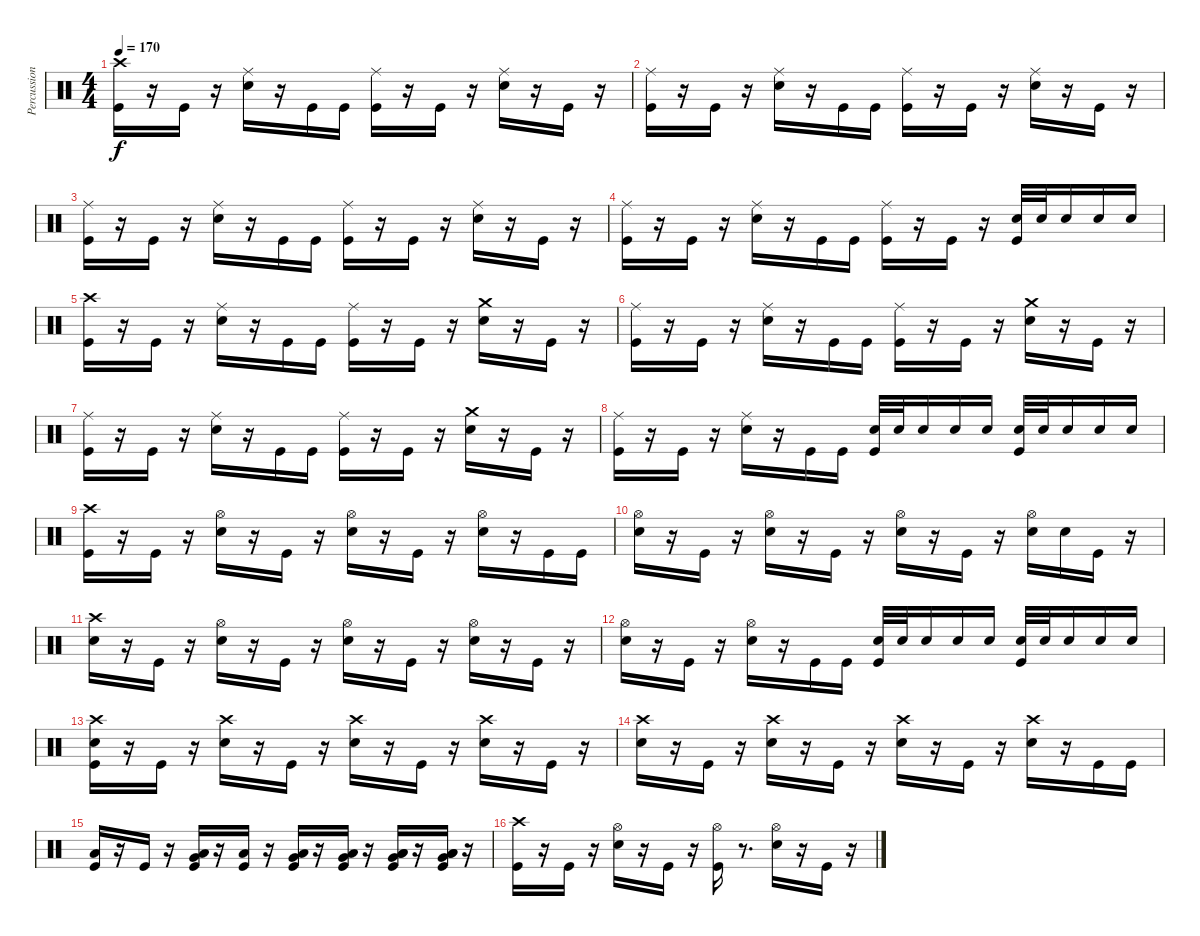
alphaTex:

\track ("Percussion" "Percussion") {instrument percussion}
\staff {score}
\articulation defaults
\ts (4 4)
\tempo 170
\clef neutral
\ks c
("Crash high (hit)" "Kick (hit)").16{dy f} r.16 "Kick (hit)".16 r.16 ("Ride (middle)" "Electric Snare (hit)").16 r.16 "Kick (hit)".16 "Kick (hit)".16 ("Ride (middle)" "Kick (hit)").16 r.16 "Kick (hit)".16 r.16 ("Ride (middle)" "Electric Snare (hit)").16 r.16 "Kick (hit)".16 r.16 |
("Ride (middle)" "Kick (hit)").16 r.16 "Kick (hit)".16 r.16 ("Ride (middle)" "Electric Snare (hit)").16 r.16 "Kick (hit)".16 "Kick (hit)".16 ("Ride (middle)" "Kick (hit)").16 r.16 "Kick (hit)".16 r.16 ("Ride (middle)" "Electric Snare (hit)").16 r.16 "Kick (hit)".16 r.16 |
("Ride (middle)" "Kick (hit)").16 r.16 "Kick (hit)".16 r.16 ("Ride (middle)" "Electric Snare (hit)").16 r.16 "Kick (hit)".16 "Kick (hit)".16 ("Ride (middle)" "Kick (hit)").16 r.16 "Kick (hit)".16 r.16 ("Ride (middle)" "Electric Snare (hit)").16 r.16 "Kick (hit)".16 r.16 |
("Ride (middle)" "Kick (hit)").16 r.16 "Kick (hit)".16 r.16 ("Ride (middle)" "Electric Snare (hit)").16 r.16 "Kick (hit)".16 "Kick (hit)".16 ("Ride (middle)" "Kick (hit)").16 r.16 "Kick (hit)".16 r.16 ("Kick (hit)" "Electric Snare (hit)").32 "Electric Snare (hit)".32 "Electric Snare (hit)".16 "Electric Snare (hit)".16 "Electric Snare (hit)".16 |
("Crash high (hit)" "Kick (hit)").16 r.16 "Kick (hit)".16 r.16 ("Ride (middle)" "Electric Snare (hit)").16 r.16 "Kick (hit)".16 "Kick (hit)".16 ("Ride (middle)" "Kick (hit)").16 r.16 "Kick (hit)".16 r.16 ("Crash medium (hit)" "Electric Snare (hit)").16 r.16 "Kick (hit)".16 r.16 |
("Ride (middle)" "Kick (hit)").16 r.16 "Kick (hit)".16 r.16 ("Ride (middle)" "Electric Snare (hit)").16 r.16 "Kick (hit)".16 "Kick (hit)".16 ("Ride (middle)" "Kick (hit)").16 r.16 "Kick (hit)".16 r.16 ("Crash medium (hit)" "Electric Snare (hit)").16 r.16 "Kick (hit)".16 r.16 |
("Ride (middle)" "Kick (hit)").16 r.16 "Kick (hit)".16 r.16 ("Ride (middle)" "Electric Snare (hit)").16 r.16 "Kick (hit)".16 "Kick (hit)".16 ("Ride (middle)" "Kick (hit)").16 r.16 "Kick (hit)".16 r.16 ("Crash medium (hit)" "Electric Snare (hit)").16 r.16 "Kick (hit)".16 r.16 |
("Ride (middle)" "Kick (hit)").16 r.16 "Kick (hit)".16 r.16 ("Ride (middle)" "Electric Snare (hit)").16 r.16 "Kick (hit)".16 "Kick (hit)".16 ("Electric Snare (hit)" "Kick (hit)").32 "Electric Snare (hit)".32 "Electric Snare (hit)".16 "Electric Snare (hit)".16 "Electric Snare (hit)".16 ("Kick (hit)" "Electric Snare (hit)").32 "Electric Snare (hit)".32 "Electric Snare (hit)".16 "Electric Snare (hit)".16 "Electric Snare (hit)".16 |
("Crash high (hit)" "Kick (hit)").16 r.16 "Kick (hit)".16 r.16 ("Hi-Hat (open)" "Electric Snare (hit)").16 r.16 "Kick (hit)".16 r.16 ("Electric Snare (hit)" "Hi-Hat (open)").16 r.16 "Kick (hit)".16 r.16 ("Hi-Hat (open)" "Electric Snare (hit)").16 r.16 "Kick (hit)".16 "Kick (hit)".16 |
("Electric Snare (hit)" "Hi-Hat (open)").16 r.16 "Kick (hit)".16 r.16 ("Hi-Hat (open)" "Electric Snare (hit)").16 r.16 "Kick (hit)".16 r.16 ("Electric Snare (hit)" "Hi-Hat (open)").16 r.16 "Kick (hit)".16 r.16 ("Hi-Hat (open)" "Electric Snare (hit)").16 "Electric Snare (hit)".16 "Kick (hit)".16 r.16 |
("Crash high (hit)" "Electric Snare (hit)").16 r.16 "Kick (hit)".16 r.16 ("Hi-Hat (open)" "Electric Snare (hit)").16 r.16 "Kick (hit)".16 r.16 ("Electric Snare (hit)" "Hi-Hat (open)").16 r.16 "Kick (hit)".16 r.16 ("Hi-Hat (open)" "Electric Snare (hit)").16 r.16 "Kick (hit)".16 r.16 |
("Electric Snare (hit)" "Hi-Hat (open)").16 r.16 "Kick (hit)".16 r.16 ("Hi-Hat (open)" "Electric Snare (hit)").16 r.16 "Kick (hit)".16 "Kick (hit)".16 ("Electric Snare (hit)" "Kick (hit)").32 "Electric Snare (hit)".32 "Electric Snare (hit)".16 "Electric Snare (hit)".16 "Electric Snare (hit)".16 ("Kick (hit)" "Electric Snare (hit)").32 "Electric Snare (hit)".32 "Electric Snare (hit)".16 "Electric Snare (hit)".16 "Electric Snare (hit)".16 |
("Electric Snare (hit)" "Crash high (hit)" "Kick (hit)").16 r.16 "Kick (hit)".16 r.16 ("Crash high (hit)" "Electric Snare (hit)").16 r.16 "Kick (hit)".16 r.16 ("Electric Snare (hit)" "Crash high (hit)").16 r.16 "Kick (hit)".16 r.16 ("Crash high (hit)" "Electric Snare (hit)").16 r.16 "Kick (hit)".16 r.16 |
("Crash high (hit)" "Electric Snare (hit)").16 r.16 "Kick (hit)".16 r.16 ("Crash high (hit)" "Electric Snare (hit)").16 r.16 "Kick (hit)".16 r.16 ("Electric Snare (hit)" "Crash high (hit)").16 r.16 "Kick (hit)".16 r.16 ("Crash high (hit)" "Electric Snare (hit)").16 r.16 "Kick (hit)".16 "Kick (hit)".16 |
("Low Floor Tom (hit)" "Kick (hit)").16 r.16 "Kick (hit)".16 r.16 ("Very Low Tom (hit)" "Low Floor Tom (hit)" "Kick (hit)").16 r.16 ("Low Floor Tom (hit)" "Kick (hit)").16 r.16 ("Very Low Tom (hit)" "Low Floor Tom (hit)" "Kick (hit)").16 r.16 ("Very Low Tom (hit)" "Low Floor Tom (hit)" "Kick (hit)").16 r.16 ("Low Tom (hit)" "Low Floor Tom (hit)" "Very Low Tom (hit)" "Kick (hit)").16 r.16 ("Low Tom (hit)" "Low Floor Tom (hit)" "Very Low Tom (hit)" "Kick (hit)").16 r.16 |
("Crash high (hit)" "Kick (hit)").16 r.16 "Kick (hit)".16 r.16 ("Hi-Hat (open)" "Electric Snare (hit)").16 r.16 "Kick (hit)".16 r.16 ("Hi-Hat (open)" "Kick (hit)").16 r.8{d} ("Hi-Hat (open)" "Electric Snare (hit)").16 r.16 "Kick (hit)".16 r.16
